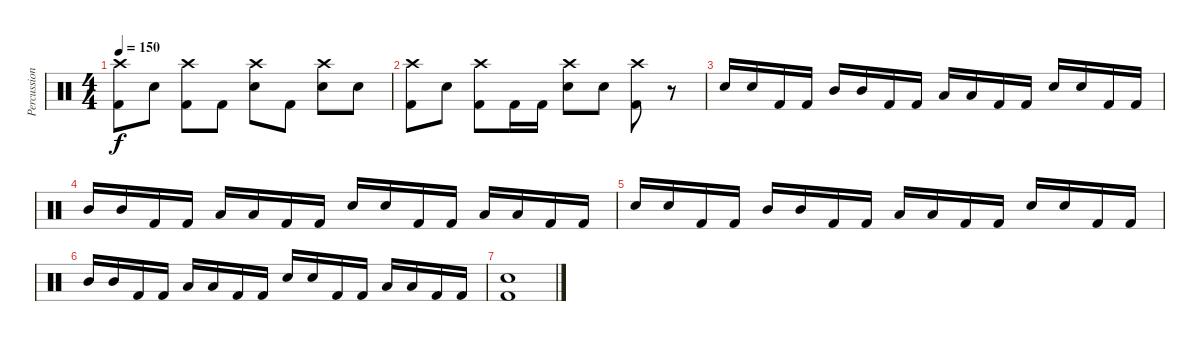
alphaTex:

\track ("Percussion" "Percussion") {instrument percussion}
\staff {score}
\articulation defaults
\ts (4 4)
\tempo 150
\clef neutral
\ks c
("Crash high (hit)" "Kick (hit) 2").8{dy f} "Snare (hit) 2".8 ("Crash high (hit)" "Kick (hit) 2").8 "Kick (hit) 2".8 ("Crash high (hit)" "Snare (hit) 2").8 "Kick (hit) 2".8 ("Crash high (hit)" "Snare (hit) 2").8 "Snare (hit) 2".8 |
("Crash high (hit)" "Kick (hit) 2").8 "Snare (hit) 2".8 ("Crash high (hit)" "Kick (hit) 2").8 "Kick (hit) 2".16 "Kick (hit) 2".16 ("Crash high (hit)" "Snare (hit) 2").8 "Snare (hit) 2".8 ("Crash high (hit)" "Kick (hit) 2").8 r.8 |
"Snare (hit) 2".16 "Snare (hit) 2".16 "Kick (hit) 2".16 "Kick (hit) 2".16 "Mid Tom (hit)".16 "Mid Tom (hit)".16 "Kick (hit) 2".16 "Kick (hit) 2".16 "Low Tom (hit)".16 "Low Tom (hit)".16 "Kick (hit) 2".16 "Kick (hit) 2".16 "Snare (hit) 2".16 "Snare (hit) 2".16 "Kick (hit) 2".16 "Kick (hit) 2".16 |
"Mid Tom (hit)".16 "Mid Tom (hit)".16 "Kick (hit) 2".16 "Kick (hit) 2".16 "Low Tom (hit)".16 "Low Tom (hit)".16 "Kick (hit) 2".16 "Kick (hit) 2".16 "Snare (hit) 2".16 "Snare (hit) 2".16 "Kick (hit) 2".16 "Kick (hit) 2".16 "Low Tom (hit)".16 "Low Tom (hit)".16 "Kick (hit) 2".16 "Kick (hit) 2".16 |
"Snare (hit) 2".16 "Snare (hit) 2".16 "Kick (hit) 2".16 "Kick (hit) 2".16 "Mid Tom (hit)".16 "Mid Tom (hit)".16 "Kick (hit) 2".16 "Kick (hit) 2".16 "Low Tom (hit)".16 "Low Tom (hit)".16 "Kick (hit) 2".16 "Kick (hit) 2".16 "Snare (hit) 2".16 "Snare (hit) 2".16 "Kick (hit) 2".16 "Kick (hit) 2".16 |
"Mid Tom (hit)".16 "Mid Tom (hit)".16 "Kick (hit) 2".16 "Kick (hit) 2".16 "Low Tom (hit)".16 "Low Tom (hit)".16 "Kick (hit) 2".16 "Kick (hit) 2".16 "Snare (hit) 2".16 "Snare (hit) 2".16 "Kick (hit) 2".16 "Kick (hit) 2".16 "Low Tom (hit)".16 "Low Tom (hit)".16 "Kick (hit) 2".16 "Kick (hit) 2".16 |
("Snare (hit) 2" "Kick (hit) 2").1
